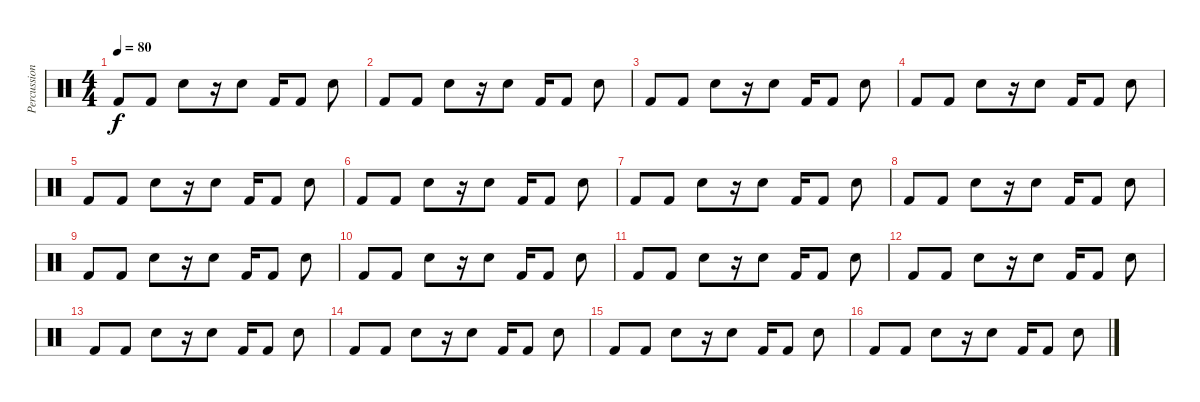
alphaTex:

\track ("Percussion" "Percussion") {instrument percussion}
\staff {score}
\articulation defaults
\ts (4 4)
\tempo 80
\clef neutral
\ks c "Kick (hit) 2".8{dy f} "Kick (hit) 2".8 "Electric Snare (hit)".8
r.16 "Electric Snare (hit)".8 "Kick (hit) 2".16 "Kick (hit) 2".8 "Electric Snare (hit)".8 |
"Kick (hit) 2".8 "Kick (hit) 2".8 "Electric Snare (hit)".8 r.16 "Electric Snare (hit)".8 "Kick (hit) 2".16 "Kick (hit) 2".8 "Electric Snare (hit)".8 |
"Kick (hit) 2".8 "Kick (hit) 2".8 "Electric Snare (hit)".8 r.16 "Electric Snare (hit)".8 "Kick (hit) 2".16 "Kick (hit) 2".8 "Electric Snare (hit)".8 |
"Kick (hit) 2".8 "Kick (hit) 2".8 "Electric Snare (hit)".8 r.16 "Electric Snare (hit)".8 "Kick (hit) 2".16 "Kick (hit) 2".8 "Electric Snare (hit)".8 |
"Kick (hit) 2".8 "Kick (hit) 2".8 "Electric Snare (hit)".8 r.16 "Electric Snare (hit)".8 "Kick (hit) 2".16 "Kick (hit) 2".8 "Electric Snare (hit)".8 |
"Kick (hit) 2".8 "Kick (hit) 2".8 "Electric Snare (hit)".8 r.16 "Electric Snare (hit)".8 "Kick (hit) 2".16 "Kick (hit) 2".8 "Electric Snare (hit)".8 |
"Kick (hit) 2".8 "Kick (hit) 2".8 "Electric Snare (hit)".8 r.16 "Electric Snare (hit)".8 "Kick (hit) 2".16 "Kick (hit) 2".8 "Electric Snare (hit)".8 |
"Kick (hit) 2".8 "Kick (hit) 2".8 "Electric Snare (hit)".8 r.16 "Electric Snare (hit)".8 "Kick (hit) 2".16 "Kick (hit) 2".8 "Electric Snare (hit)".8 |
"Kick (hit) 2".8 "Kick (hit) 2".8 "Electric Snare (hit)".8 r.16 "Electric Snare (hit)".8 "Kick (hit) 2".16 "Kick (hit) 2".8 "Electric Snare (hit)".8 |
"Kick (hit) 2".8 "Kick (hit) 2".8 "Electric Snare (hit)".8 r.16 "Electric Snare (hit)".8 "Kick (hit) 2".16 "Kick (hit) 2".8 "Electric Snare (hit)".8 |
"Kick (hit) 2".8 "Kick (hit) 2".8 "Electric Snare (hit)".8 r.16 "Electric Snare (hit)".8 "Kick (hit) 2".16 "Kick (hit) 2".8 "Electric Snare (hit)".8 |
"Kick (hit) 2".8 "Kick (hit) 2".8 "Electric Snare (hit)".8 r.16 "Electric Snare (hit)".8 "Kick (hit) 2".16 "Kick (hit) 2".8 "Electric Snare (hit)".8 |
"Kick (hit) 2".8 "Kick (hit) 2".8 "Electric Snare (hit)".8 r.16 "Electric Snare (hit)".8 "Kick (hit) 2".16 "Kick (hit) 2".8 "Electric Snare (hit)".8 |
"Kick (hit) 2".8 "Kick (hit) 2".8 "Electric Snare (hit)".8 r.16 "Electric Snare (hit)".8 "Kick (hit) 2".16 "Kick (hit) 2".8 "Electric Snare (hit)".8 |
"Kick (hit) 2".8 "Kick (hit) 2".8 "Electric Snare (hit)".8 r.16 "Electric Snare (hit)".8 "Kick (hit) 2".16 "Kick (hit) 2".8 "Electric Snare (hit)".8 |
"Kick (hit) 2".8 "Kick (hit) 2".8 "Electric Snare (hit)".8 r.16 "Electric Snare (hit)".8 "Kick (hit) 2".16 "Kick (hit) 2".8 "Electric Snare (hit)".8
